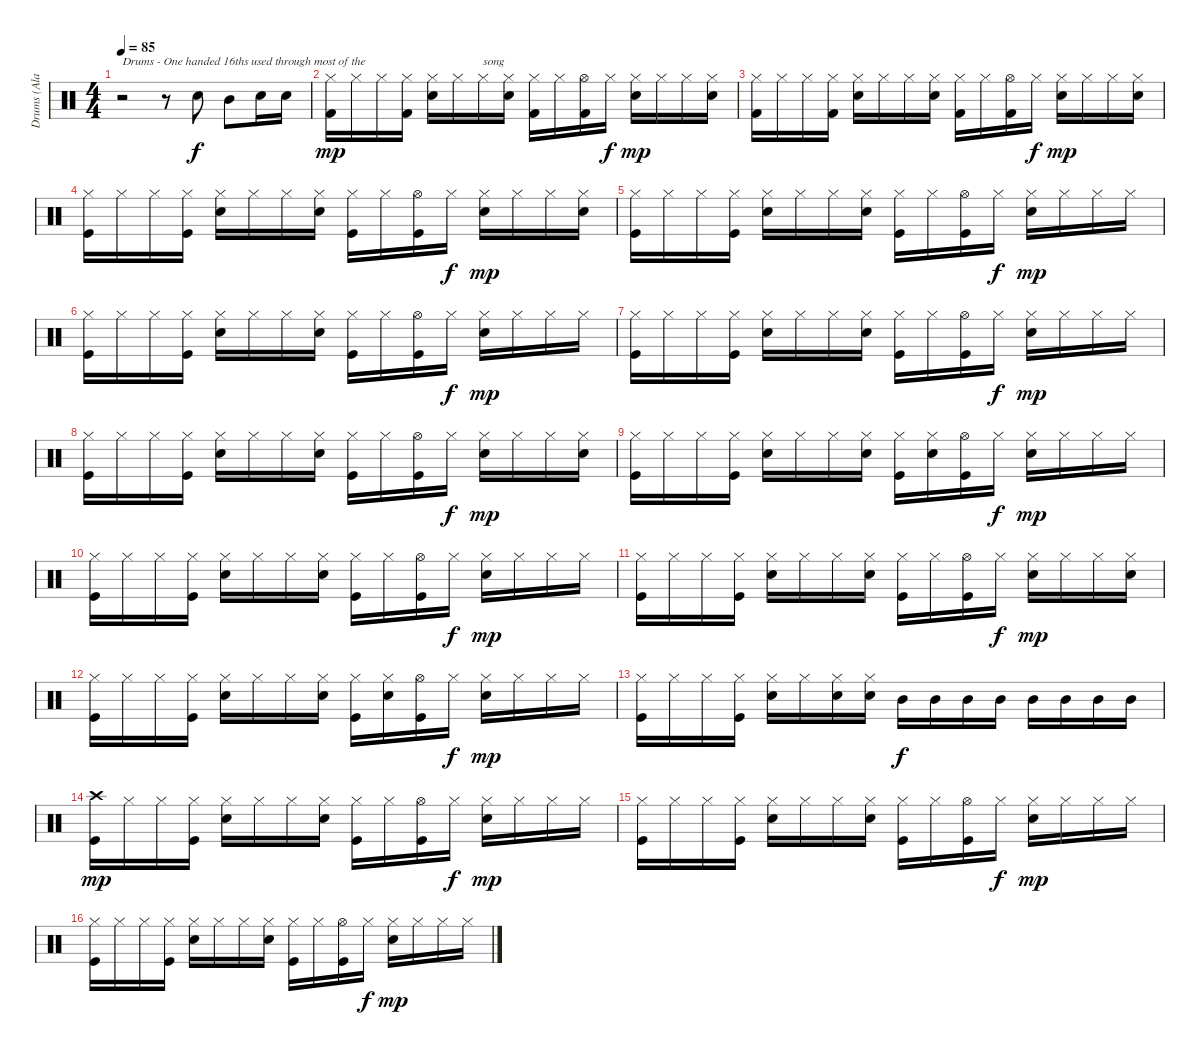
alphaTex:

\track ("Drums (Alan White)" "Drums (Ala") {instrument percussion}
\staff {score}
\articulation defaults
\ts (4 4)
\tempo 85
\clef neutral
\ks c
r.2{txt "Drums - One handed 16ths used through most of the " dy f} r.8 "Snare (hit) 2".8 "Mid Tom (hit)".8 "Snare (hit) 2".16 "Snare (hit) 2".16 |
("Hi-Hat (closed)" "Kick (hit) 2").16{dy mp} "Hi-Hat (closed)".16 "Hi-Hat (closed)".16 ("Hi-Hat (closed)" "Kick (hit) 2").16 ("Hi-Hat (closed)" "Snare (hit) 2").16 "Hi-Hat (closed)".16 "Hi-Hat (closed)".16{txt "song"} ("Hi-Hat (closed)" "Snare (hit) 2").16 ("Hi-Hat (closed)" "Kick (hit) 2").16 "Hi-Hat (closed)".16 ("Hi-Hat (open)" "Kick (hit) 2").16 "Hi-Hat (closed)".16{dy f} ("Hi-Hat (closed)" "Snare (hit) 2").16{dy mp} "Hi-Hat (closed)".16 "Hi-Hat (closed)".16 ("Hi-Hat (closed)" "Snare (hit) 2").16 |
("Hi-Hat (closed)" "Kick (hit) 2").16 "Hi-Hat (closed)".16 "Hi-Hat (closed)".16 ("Hi-Hat (closed)" "Kick (hit) 2").16 ("Hi-Hat (closed)" "Snare (hit) 2").16 "Hi-Hat (closed)".16 "Hi-Hat (closed)".16 ("Hi-Hat (closed)" "Snare (hit) 2").16 ("Hi-Hat (closed)" "Kick (hit) 2").16 "Hi-Hat (closed)".16 ("Hi-Hat (open)" "Kick (hit) 2").16 "Hi-Hat (closed)".16{dy f} ("Hi-Hat (closed)" "Snare (hit) 2").16{dy mp} "Hi-Hat (closed)".16 "Hi-Hat (closed)".16 ("Hi-Hat (closed)" "Snare (hit) 2").16 |
("Hi-Hat (closed)" "Kick (hit)").16 "Hi-Hat (closed)".16 "Hi-Hat (closed)".16 ("Hi-Hat (closed)" "Kick (hit)").16 ("Hi-Hat (closed)" "Snare (hit) 2").16 "Hi-Hat (closed)".16 "Hi-Hat (closed)".16 ("Hi-Hat (closed)" "Snare (hit) 2").16 ("Hi-Hat (closed)" "Kick (hit)").16 "Hi-Hat (closed)".16 ("Hi-Hat (open)" "Kick (hit)").16 "Hi-Hat (closed)".16{dy f} ("Hi-Hat (closed)" "Snare (hit) 2").16{dy mp} "Hi-Hat (closed)".16 "Hi-Hat (closed)".16 ("Hi-Hat (closed)" "Snare (hit) 2").16 |
("Hi-Hat (closed)" "Kick (hit)").16 "Hi-Hat (closed)".16 "Hi-Hat (closed)".16 ("Hi-Hat (closed)" "Kick (hit)").16 ("Hi-Hat (closed)" "Snare (hit) 2").16 "Hi-Hat (closed)".16 "Hi-Hat (closed)".16 ("Hi-Hat (closed)" "Snare (hit) 2").16 ("Hi-Hat (closed)" "Kick (hit)").16 "Hi-Hat (closed)".16 ("Hi-Hat (open)" "Kick (hit)").16 "Hi-Hat (closed)".16{dy f} ("Hi-Hat (closed)" "Snare (hit) 2").16{dy mp} "Hi-Hat (closed)".16 "Hi-Hat (closed)".16 "Hi-Hat (closed)".16 |
("Hi-Hat (closed)" "Kick (hit)").16 "Hi-Hat (closed)".16 "Hi-Hat (closed)".16 ("Hi-Hat (closed)" "Kick (hit)").16 ("Hi-Hat (closed)" "Snare (hit) 2").16 "Hi-Hat (closed)".16 "Hi-Hat (closed)".16 ("Hi-Hat (closed)" "Snare (hit) 2").16 ("Hi-Hat (closed)" "Kick (hit)").16 "Hi-Hat (closed)".16 ("Hi-Hat (open)" "Kick (hit)").16 "Hi-Hat (closed)".16{dy f} ("Hi-Hat (closed)" "Snare (hit) 2").16{dy mp} "Hi-Hat (closed)".16 "Hi-Hat (closed)".16 "Hi-Hat (closed)".16 |
("Hi-Hat (closed)" "Kick (hit)").16 "Hi-Hat (closed)".16 "Hi-Hat (closed)".16 ("Hi-Hat (closed)" "Kick (hit)").16 ("Hi-Hat (closed)" "Snare (hit) 2").16 "Hi-Hat (closed)".16 "Hi-Hat (closed)".16 ("Hi-Hat (closed)" "Snare (hit) 2").16 ("Hi-Hat (closed)" "Kick (hit)").16 "Hi-Hat (closed)".16 ("Hi-Hat (open)" "Kick (hit)").16 "Hi-Hat (closed)".16{dy f} ("Hi-Hat (closed)" "Snare (hit) 2").16{dy mp} "Hi-Hat (closed)".16 "Hi-Hat (closed)".16 "Hi-Hat (closed)".16 |
("Hi-Hat (closed)" "Kick (hit)").16 "Hi-Hat (closed)".16 "Hi-Hat (closed)".16 ("Hi-Hat (closed)" "Kick (hit)").16 ("Hi-Hat (closed)" "Snare (hit) 2").16 "Hi-Hat (closed)".16 "Hi-Hat (closed)".16 ("Hi-Hat (closed)" "Snare (hit) 2").16 ("Hi-Hat (closed)" "Kick (hit)").16 "Hi-Hat (closed)".16 ("Hi-Hat (open)" "Kick (hit)").16 "Hi-Hat (closed)".16{dy f} ("Hi-Hat (closed)" "Snare (hit) 2").16{dy mp} "Hi-Hat (closed)".16 "Hi-Hat (closed)".16 ("Hi-Hat (closed)" "Snare (hit) 2").16 |
("Hi-Hat (closed)" "Kick (hit)").16 "Hi-Hat (closed)".16 "Hi-Hat (closed)".16 ("Hi-Hat (closed)" "Kick (hit)").16 ("Hi-Hat (closed)" "Snare (hit) 2").16 "Hi-Hat (closed)".16 "Hi-Hat (closed)".16 ("Hi-Hat (closed)" "Snare (hit) 2").16 ("Hi-Hat (closed)" "Kick (hit)").16 ("Hi-Hat (closed)" "Snare (hit) 2").16 ("Hi-Hat (open)" "Kick (hit)").16 "Hi-Hat (closed)".16{dy f} ("Hi-Hat (closed)" "Snare (hit) 2").16{dy mp} "Hi-Hat (closed)".16 "Hi-Hat (closed)".16 "Hi-Hat (closed)".16 |
("Hi-Hat (closed)" "Kick (hit)").16 "Hi-Hat (closed)".16 "Hi-Hat (closed)".16 ("Hi-Hat (closed)" "Kick (hit)").16 ("Hi-Hat (closed)" "Snare (hit) 2").16 "Hi-Hat (closed)".16 "Hi-Hat (closed)".16 ("Hi-Hat (closed)" "Snare (hit) 2").16 ("Hi-Hat (closed)" "Kick (hit)").16 "Hi-Hat (closed)".16 ("Hi-Hat (open)" "Kick (hit)").16 "Hi-Hat (closed)".16{dy f} ("Hi-Hat (closed)" "Snare (hit) 2").16{dy mp} "Hi-Hat (closed)".16 "Hi-Hat (closed)".16 "Hi-Hat (closed)".16 |
("Hi-Hat (closed)" "Kick (hit)").16 "Hi-Hat (closed)".16 "Hi-Hat (closed)".16 ("Hi-Hat (closed)" "Kick (hit)").16 ("Hi-Hat (closed)" "Snare (hit) 2").16 "Hi-Hat (closed)".16 "Hi-Hat (closed)".16 ("Hi-Hat (closed)" "Snare (hit) 2").16 ("Hi-Hat (closed)" "Kick (hit)").16 "Hi-Hat (closed)".16 ("Hi-Hat (open)" "Kick (hit)").16 "Hi-Hat (closed)".16{dy f} ("Hi-Hat (closed)" "Snare (hit) 2").16{dy mp} "Hi-Hat (closed)".16 "Hi-Hat (closed)".16 ("Hi-Hat (closed)" "Snare (hit) 2").16 |
("Hi-Hat (closed)" "Kick (hit)").16 "Hi-Hat (closed)".16 "Hi-Hat (closed)".16 ("Hi-Hat (closed)" "Kick (hit)").16 ("Hi-Hat (closed)" "Snare (hit) 2").16 "Hi-Hat (closed)".16 "Hi-Hat (closed)".16 ("Hi-Hat (closed)" "Snare (hit) 2").16 ("Hi-Hat (closed)" "Kick (hit)").16 ("Hi-Hat (closed)" "Snare (hit) 2").16 ("Hi-Hat (open)" "Kick (hit)").16 "Hi-Hat (closed)".16{dy f} ("Hi-Hat (closed)" "Snare (hit) 2").16{dy mp} "Hi-Hat (closed)".16 "Hi-Hat (closed)".16 "Hi-Hat (closed)".16 |
("Hi-Hat (closed)" "Kick (hit)").16 "Hi-Hat (closed)".16 "Hi-Hat (closed)".16 ("Hi-Hat (closed)" "Kick (hit)").16 ("Hi-Hat (closed)" "Snare (hit) 2").16 "Hi-Hat (closed)".16 ("Hi-Hat (closed)" "Snare (hit) 2").16 ("Hi-Hat (closed)" "Snare (hit) 2").16 "Mid Tom (hit)".16{dy f} "Mid Tom (hit)".16 "Mid Tom (hit)".16 "Mid Tom (hit)".16 "Mid Tom (hit)".16 "Mid Tom (hit)".16 "Mid Tom (hit)".16 "Mid Tom (hit)".16 |
("Crash high (hit)" "Kick (hit)").16{dy mp} "Hi-Hat (closed)".16 "Hi-Hat (closed)".16 ("Hi-Hat (closed)" "Kick (hit)").16 ("Hi-Hat (closed)" "Snare (hit) 2").16 "Hi-Hat (closed)".16 "Hi-Hat (closed)".16 ("Hi-Hat (closed)" "Snare (hit) 2").16 ("Hi-Hat (closed)" "Kick (hit)").16 "Hi-Hat (closed)".16 ("Hi-Hat (open)" "Kick (hit)").16 "Hi-Hat (closed)".16{dy f} ("Hi-Hat (closed)" "Snare (hit) 2").16{dy mp} "Hi-Hat (closed)".16 "Hi-Hat (closed)".16 "Hi-Hat (closed)".16 |
("Hi-Hat (closed)" "Kick (hit)").16 "Hi-Hat (closed)".16 "Hi-Hat (closed)".16 ("Hi-Hat (closed)" "Kick (hit)").16 ("Hi-Hat (closed)" "Snare (hit) 2").16 "Hi-Hat (closed)".16 "Hi-Hat (closed)".16 ("Hi-Hat (closed)" "Snare (hit) 2").16 ("Hi-Hat (closed)" "Kick (hit)").16 "Hi-Hat (closed)".16 ("Hi-Hat (open)" "Kick (hit)").16 "Hi-Hat (closed)".16{dy f} ("Hi-Hat (closed)" "Snare (hit) 2").16{dy mp} "Hi-Hat (closed)".16 "Hi-Hat (closed)".16 "Hi-Hat (closed)".16 |
("Hi-Hat (closed)" "Kick (hit)").16 "Hi-Hat (closed)".16 "Hi-Hat (closed)".16 ("Hi-Hat (closed)" "Kick (hit)").16 ("Hi-Hat (closed)" "Snare (hit) 2").16 "Hi-Hat (closed)".16 "Hi-Hat (closed)".16 ("Hi-Hat (closed)" "Snare (hit) 2").16 ("Hi-Hat (closed)" "Kick (hit)").16 "Hi-Hat (closed)".16 ("Hi-Hat (open)" "Kick (hit)").16 "Hi-Hat (closed)".16{dy f} ("Hi-Hat (closed)" "Snare (hit) 2").16{dy mp} "Hi-Hat (closed)".16 "Hi-Hat (closed)".16 "Hi-Hat (closed)".16
